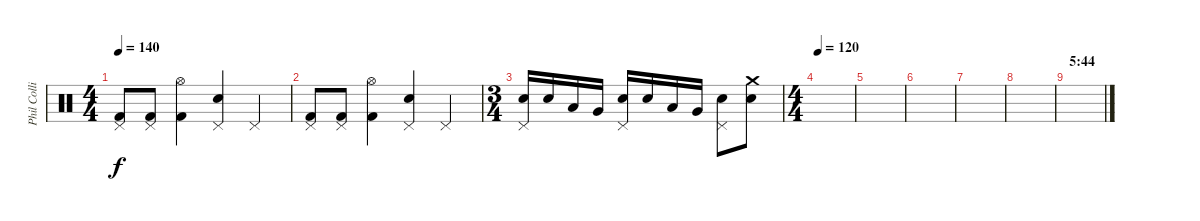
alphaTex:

\track ("Phil Collins (drums)" "Phil Colli") {instrument percussion}
\staff {score}
\articulation defaults
\ts (4 4)
\tempo 140
\clef neutral
\ks c
("Pedal Hi-Hat (hit)" "Kick (hit) 2").8{dy f} ("Pedal Hi-Hat (hit)" "Kick (hit) 2").8 ("Hi-Hat (open)" "Kick (hit) 2").4 ("Pedal Hi-Hat (hit)" "Electric Snare (hit)").4 "Pedal Hi-Hat (hit)".4 |
("Pedal Hi-Hat (hit)" "Kick (hit) 2").8 ("Pedal Hi-Hat (hit)" "Kick (hit) 2").8 ("Hi-Hat (open)" "Kick (hit) 2").4 ("Pedal Hi-Hat (hit)" "Electric Snare (hit)").4 "Pedal Hi-Hat (hit)".4 |
\ts (3 4)
("Pedal Hi-Hat (hit)" "Electric Snare (hit)").16 "Electric Snare (hit)".16 "Low Tom (hit)".16 "Very Low Tom (hit)".16 ("Pedal Hi-Hat (hit)" "Electric Snare (hit)").16 "Electric Snare (hit)".16 "Low Tom (hit)".16 "Very Low Tom (hit)".16 ("Pedal Hi-Hat (hit)" "Electric Snare (hit)").8 ("Crash medium (hit)" "Electric Snare (hit)").8 |
\ts (4 4)
\tempo 120
|
|
|
|
|
\section ("" "5:44")
